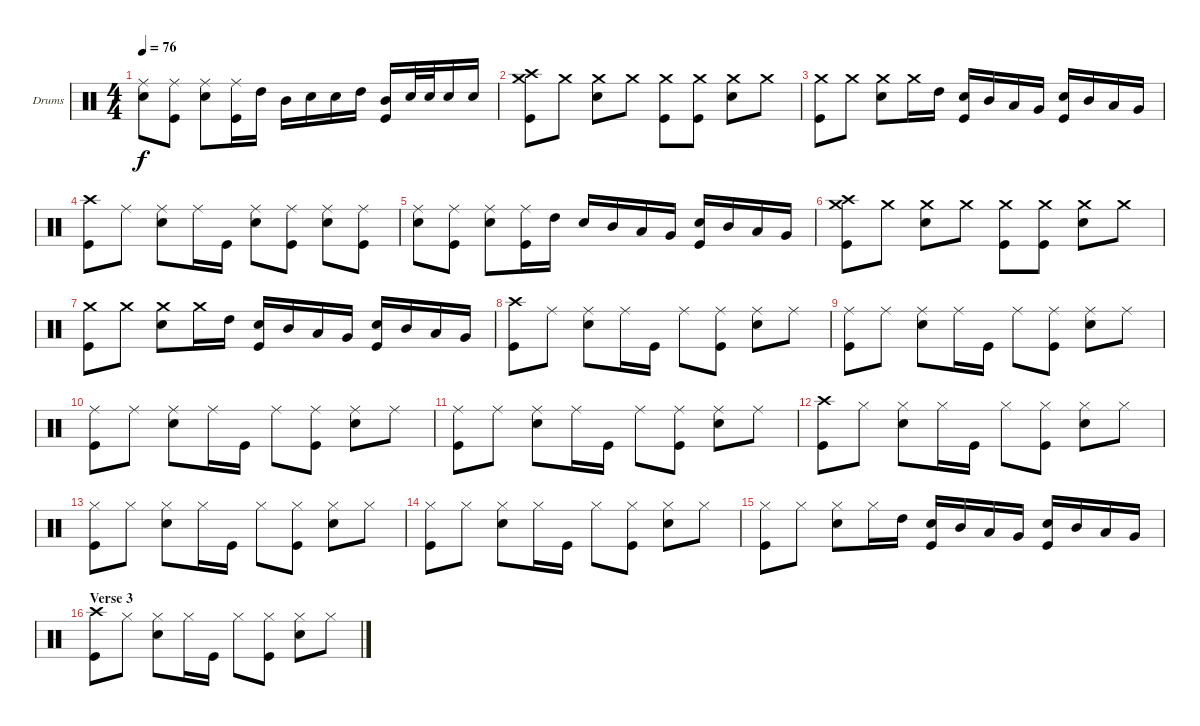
\bracketExtendMode groupsimilarinstruments
\firstSystemTrackNameOrientation horizontal
\otherSystemsTrackNameOrientation horizontal
\track ("Drums" "Drums") {instrument percussion}
\staff {score}
\articulation defaults
\ts (4 4)
\tempo 76
\clef neutral
\ks c
("Ride (middle)" "Snare (hit) 2").8{dy f} ("Ride (middle)" "Kick (hit)").8 ("Ride (middle)" "Snare (hit) 2").8 ("Ride (middle)" "Kick (hit)").16 "High Tom (hit)".16 "Mid Tom (hit)".16 "Snare (hit) 2".16 "Snare (hit) 2".16 "High Tom (hit)".16 ("Mid Tom (hit)" "Kick (hit)").16 "Snare (hit) 2".32 "Snare (hit) 2".32 "Snare (hit) 2".16 "Snare (hit) 2".16 |
("Crash high (hit)" "Crash medium (hit)" "Kick (hit)").8 "Crash medium (hit)".8 ("Crash medium (hit)" "Snare (hit) 2").8 "Crash medium (hit)".8 ("Crash medium (hit)" "Kick (hit)").8 ("Crash medium (hit)" "Kick (hit)").8 ("Crash medium (hit)" "Snare (hit) 2").8 "Crash medium (hit)".8 |
("Crash medium (hit)" "Kick (hit)").8 "Crash medium (hit)".8 ("Crash medium (hit)" "Snare (hit) 2").8 "Crash medium (hit)".16 "High Tom (hit)".16 ("Snare (hit) 2" "Kick (hit)").16 "Mid Tom (hit)".16 "Low Tom (hit)".16 "Very Low Tom (hit)".16 ("Snare (hit) 2" "Kick (hit)").16 "Mid Tom (hit)".16 "Low Tom (hit)".16 "Very Low Tom (hit)".16 |
("Crash high (hit)" "Kick (hit)").8 "Ride (middle)".8 ("Ride (middle)" "Snare (hit) 2").8 "Ride (middle)".16 "Kick (hit)".16 ("Ride (middle)" "Snare (hit) 2").8 ("Ride (middle)" "Kick (hit)").8 ("Ride (middle)" "Snare (hit) 2").8 ("Ride (middle)" "Kick (hit)").8 |
("Ride (middle)" "Snare (hit) 2").8 ("Ride (middle)" "Kick (hit)").8 ("Ride (middle)" "Snare (hit) 2").8 ("Ride (middle)" "Kick (hit)").16 "High Tom (hit)".16 "Snare (hit) 2".16 "Mid Tom (hit)".16 "Low Tom (hit)".16 "Very Low Tom (hit)".16 ("Snare (hit) 2" "Kick (hit)").16 "Mid Tom (hit)".16 "Low Tom (hit)".16 "Very Low Tom (hit)".16 |
("Crash high (hit)" "Crash medium (hit)" "Kick (hit)").8 "Crash medium (hit)".8 ("Crash medium (hit)" "Snare (hit) 2").8 "Crash medium (hit)".8 ("Crash medium (hit)" "Kick (hit)").8 ("Crash medium (hit)" "Kick (hit)").8 ("Crash medium (hit)" "Snare (hit) 2").8 "Crash medium (hit)".8 |
("Crash medium (hit)" "Kick (hit)").8 "Crash medium (hit)".8 ("Crash medium (hit)" "Snare (hit) 2").8 "Crash medium (hit)".16 "High Tom (hit)".16 ("Snare (hit) 2" "Kick (hit)").16 "Mid Tom (hit)".16 "Low Tom (hit)".16 "Very Low Tom (hit)".16 ("Snare (hit) 2" "Kick (hit)").16 "Mid Tom (hit)".16 "Low Tom (hit)".16 "Very Low Tom (hit)".16 |
("Crash high (hit)" "Kick (hit)").8 "Ride (middle)".8 ("Ride (middle)" "Snare (hit) 2").8 "Ride (middle)".16 "Kick (hit)".16 "Ride (middle)".8 ("Ride (middle)" "Kick (hit)").8 ("Ride (middle)" "Snare (hit) 2").8 "Ride (middle)".8 |
("Ride (middle)" "Kick (hit)").8 "Ride (middle)".8 ("Ride (middle)" "Snare (hit) 2").8 "Ride (middle)".16 "Kick (hit)".16 "Ride (middle)".8 ("Ride (middle)" "Kick (hit)").8 ("Ride (middle)" "Snare (hit) 2").8 "Ride (middle)".8 |
("Ride (middle)" "Kick (hit)").8 "Ride (middle)".8 ("Ride (middle)" "Snare (hit) 2").8 "Ride (middle)".16 "Kick (hit)".16 "Ride (middle)".8 ("Ride (middle)" "Kick (hit)").8 ("Ride (middle)" "Snare (hit) 2").8 "Ride (middle)".8 |
("Ride (middle)" "Kick (hit)").8 "Ride (middle)".8 ("Ride (middle)" "Snare (hit) 2").8 "Ride (middle)".16 "Kick (hit)".16 "Ride (middle)".8 ("Ride (middle)" "Kick (hit)").8 ("Ride (middle)" "Snare (hit) 2").8 "Ride (middle)".8 |
("Crash high (hit)" "Kick (hit)").8 "Hi-Hat (closed)".8 ("Hi-Hat (closed)" "Snare (hit) 2").8 "Hi-Hat (closed)".16 "Kick (hit)".16 "Hi-Hat (closed)".8 ("Hi-Hat (closed)" "Kick (hit)").8 ("Hi-Hat (closed)" "Snare (hit) 2").8 "Hi-Hat (closed)".8 |
("Hi-Hat (closed)" "Kick (hit)").8 "Hi-Hat (closed)".8 ("Hi-Hat (closed)" "Snare (hit) 2").8 "Hi-Hat (closed)".16 "Kick (hit)".16 "Hi-Hat (closed)".8 ("Hi-Hat (closed)" "Kick (hit)").8 ("Hi-Hat (closed)" "Snare (hit) 2").8 "Hi-Hat (closed)".8 |
("Hi-Hat (closed)" "Kick (hit)").8 "Hi-Hat (closed)".8 ("Hi-Hat (closed)" "Snare (hit) 2").8 "Hi-Hat (closed)".16 "Kick (hit)".16 "Hi-Hat (closed)".8 ("Hi-Hat (closed)" "Kick (hit)").8 ("Hi-Hat (closed)" "Snare (hit) 2").8 "Hi-Hat (closed)".8 |
("Hi-Hat (closed)" "Kick (hit)").8 "Hi-Hat (closed)".8 ("Hi-Hat (closed)" "Snare (hit) 2").8 "Hi-Hat (closed)".16 "High Tom (hit)".16 ("Snare (hit) 2" "Kick (hit)").16 "Mid Tom (hit)".16 "Low Tom (hit)".16 "Very Low Tom (hit)".16 ("Snare (hit) 2" "Kick (hit)").16 "Mid Tom (hit)".16 "Low Tom (hit)".16 "Very Low Tom (hit)".16 |
\section ("" "Verse 3")
("Crash high (hit)" "Kick (hit)").8 "Hi-Hat (closed)".8 ("Hi-Hat (closed)" "Snare (hit) 2").8 "Hi-Hat (closed)".16 "Kick (hit)".16 "Hi-Hat (closed)".8 ("Hi-Hat (closed)" "Kick (hit)").8 ("Hi-Hat (closed)" "Snare (hit) 2").8 "Hi-Hat (closed)".8
